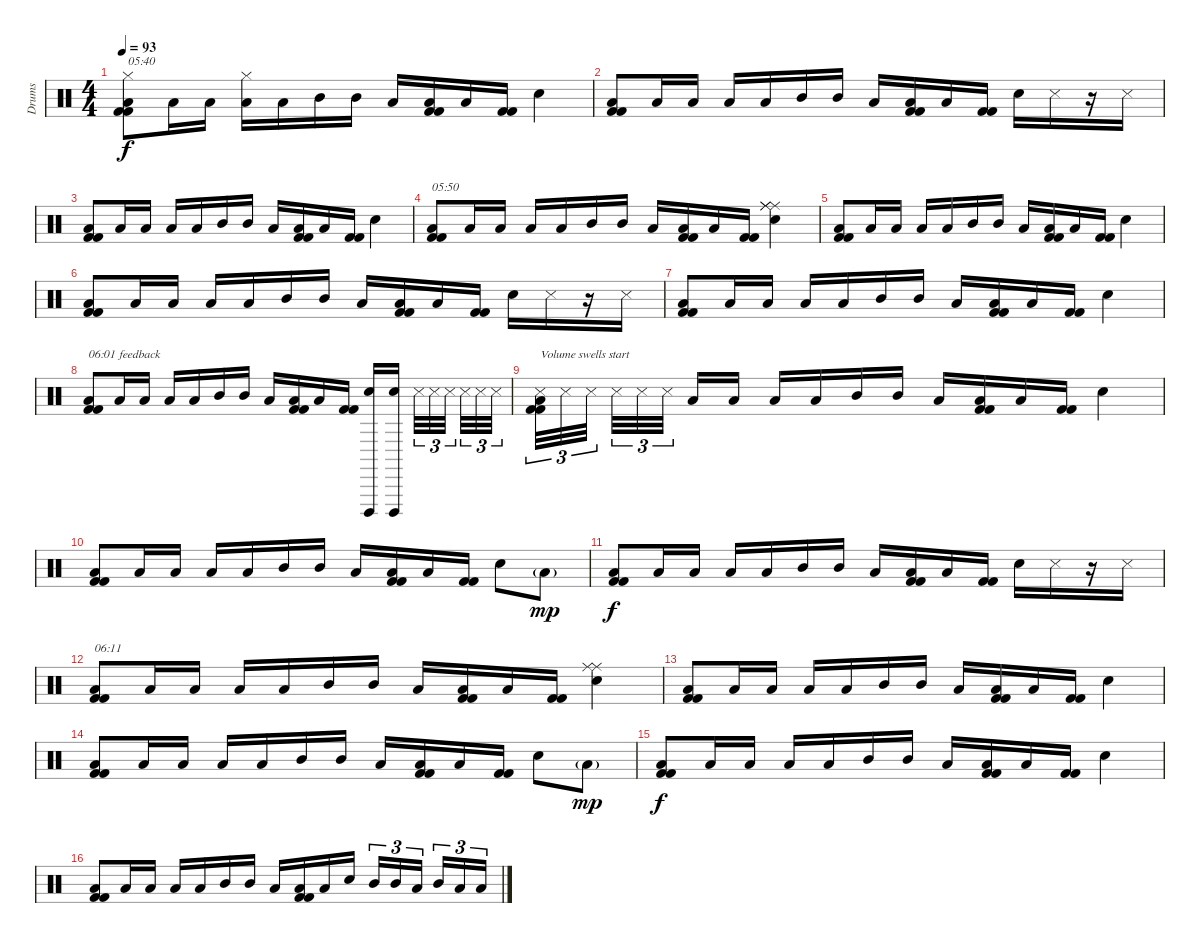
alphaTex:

\track ("Drums" "Drums") {instrument percussion}
\staff {score}
\articulation defaults
\ts (4 4)
\tempo 93
\clef neutral
\ks c
("Hi-Hat (closed)" "Low Floor Tom (hit)" "Kick (hit) 2" "Kick (hit) 2").8{txt "05:40" dy f} "Low Floor Tom (hit)".16 "Low Tom (hit)".16 ("Hi-Hat (closed)" "Low Tom (hit)").16 "Low Floor Tom (hit)".16 "Mid Tom (hit)".16 "Mid Tom (hit)".16 "Low Floor Tom (hit)".16 ("Low Tom (hit)" "Kick (hit) 2" "Kick (hit) 2").16 "Low Floor Tom (hit)".16 ("Kick (hit) 2" "Kick (hit) 2").16 "Snare (hit) 2".4 |
("Low Floor Tom (hit)" "Kick (hit) 2" "Kick (hit) 2").8 "Low Floor Tom (hit)".16 "Low Tom (hit)".16 "Low Tom (hit)".16 "Low Floor Tom (hit)".16 "Mid Tom (hit)".16 "Mid Tom (hit)".16 "Low Floor Tom (hit)".16 ("Low Tom (hit)" "Kick (hit) 2" "Kick (hit) 2").16 "Low Floor Tom (hit)".16 ("Kick (hit) 2" "Kick (hit) 2").16 "Snare (hit) 2".16 "Snare (side stick) 3".16 r.16 "Snare (side stick) 3".16 |
("Low Floor Tom (hit)" "Kick (hit) 2" "Kick (hit) 2").8 "Low Floor Tom (hit)".16 "Low Tom (hit)".16 "Low Tom (hit)".16 "Low Floor Tom (hit)".16 "Mid Tom (hit)".16 "Mid Tom (hit)".16 "Low Floor Tom (hit)".16 ("Low Tom (hit)" "Kick (hit) 2" "Kick (hit) 2").16 "Low Floor Tom (hit)".16 ("Kick (hit) 2" "Kick (hit) 2").16 "Snare (hit) 2".4 |
("Low Floor Tom (hit)" "Kick (hit) 2" "Kick (hit) 2").8{txt "05:50"} "Low Floor Tom (hit)".16 "Low Tom (hit)".16 "Low Tom (hit)".16 "Low Floor Tom (hit)".16 "Mid Tom (hit)".16 "Mid Tom (hit)".16 "Low Floor Tom (hit)".16 ("Low Tom (hit)" "Kick (hit) 2" "Kick (hit) 2").16 "Low Floor Tom (hit)".16 ("Kick (hit) 2" "Kick (hit) 2").16 ("Ride (middle)" "Ride (middle)" "Ride (middle)" "Snare (hit) 2").4 |
("Low Floor Tom (hit)" "Kick (hit) 2" "Kick (hit) 2").8 "Low Floor Tom (hit)".16 "Low Tom (hit)".16 "Low Tom (hit)".16 "Low Floor Tom (hit)".16 "Mid Tom (hit)".16 "Mid Tom (hit)".16 "Low Floor Tom (hit)".16 ("Low Tom (hit)" "Kick (hit) 2" "Kick (hit) 2").16 "Low Floor Tom (hit)".16 ("Kick (hit) 2" "Kick (hit) 2").16 "Snare (hit) 2".4 |
("Low Floor Tom (hit)" "Kick (hit) 2" "Kick (hit) 2").8 "Low Floor Tom (hit)".16 "Low Tom (hit)".16 "Low Tom (hit)".16 "Low Floor Tom (hit)".16 "Mid Tom (hit)".16 "Mid Tom (hit)".16 "Low Floor Tom (hit)".16 ("Low Tom (hit)" "Kick (hit) 2" "Kick (hit) 2").16 "Low Floor Tom (hit)".16 ("Kick (hit) 2" "Kick (hit) 2").16 "Snare (hit) 2".16 "Snare (side stick) 3".16 r.16 "Snare (side stick) 3".16 |
("Low Floor Tom (hit)" "Kick (hit) 2" "Kick (hit) 2").8 "Low Floor Tom (hit)".16 "Low Tom (hit)".16 "Low Tom (hit)".16 "Low Floor Tom (hit)".16 "Mid Tom (hit)".16 "Mid Tom (hit)".16 "Low Floor Tom (hit)".16 ("Low Tom (hit)" "Kick (hit) 2" "Kick (hit) 2").16 "Low Floor Tom (hit)".16 ("Kick (hit) 2" "Kick (hit) 2").16 "Snare (hit) 2".4 |
("Low Floor Tom (hit)" "Kick (hit) 2" "Kick (hit) 2").8{txt "06:01 feedback"} "Low Floor Tom (hit)".16 "Low Tom (hit)".16 "Low Tom (hit)".16 "Low Floor Tom (hit)".16 "Mid Tom (hit)".16 "Mid Tom (hit)".16 "Low Floor Tom (hit)".16 ("Low Tom (hit)" "Kick (hit) 2" "Kick (hit) 2").16 "Low Floor Tom (hit)".16 ("Kick (hit) 2" "Kick (hit) 2").16 ("Snare (hit) 2" "Cuica (open)").16 ("Snare (hit) 2" "Cuica (open)").16 "Snare (side stick) 3".32{tu (3 2)} "Snare (side stick) 3".32{tu (3 2)} "Snare (side stick) 3".32{tu (3 2)} "Snare (side stick) 3".32{tu (3 2)} "Snare (side stick) 3".32{tu (3 2)} "Snare (side stick) 3".32{tu (3 2)} |
("Snare (side stick) 3" "Low Floor Tom (hit)" "Kick (hit) 2" "Kick (hit) 2").32{tu (3 2) txt "Volume swells start"} "Snare (side stick) 3".32{tu (3 2)} "Snare (side stick) 3".32{tu (3 2)} "Snare (side stick) 3".32{tu (3 2)} "Snare (side stick) 3".32{tu (3 2)} "Snare (side stick) 3".32{tu (3 2)} "Low Floor Tom (hit)".16 "Low Tom (hit)".16 "Low Tom (hit)".16 "Low Floor Tom (hit)".16 "Mid Tom (hit)".16 "Mid Tom (hit)".16 "Low Floor Tom (hit)".16 ("Low Tom (hit)" "Kick (hit) 2" "Kick (hit) 2").16 "Low Floor Tom (hit)".16 ("Kick (hit) 2" "Kick (hit) 2").16 "Snare (hit) 2".4 |
("Low Floor Tom (hit)" "Kick (hit) 2" "Kick (hit) 2").8 "Low Floor Tom (hit)".16 "Low Tom (hit)".16 "Low Tom (hit)".16 "Low Floor Tom (hit)".16 "Mid Tom (hit)".16 "Mid Tom (hit)".16 "Low Floor Tom (hit)".16 ("Low Tom (hit)" "Kick (hit) 2" "Kick (hit) 2").16 "Low Floor Tom (hit)".16 ("Kick (hit) 2" "Kick (hit) 2").16 "Snare (hit) 2".8 "Low Tom (hit)"{g}.8{dy mp} |
("Low Floor Tom (hit)" "Kick (hit) 2" "Kick (hit) 2").8{dy f} "Low Floor Tom (hit)".16 "Low Tom (hit)".16 "Low Tom (hit)".16 "Low Floor Tom (hit)".16 "Mid Tom (hit)".16 "Mid Tom (hit)".16 "Low Floor Tom (hit)".16 ("Low Tom (hit)" "Kick (hit) 2" "Kick (hit) 2").16 "Low Floor Tom (hit)".16 ("Kick (hit) 2" "Kick (hit) 2").16 "Snare (hit) 2".16 "Snare (side stick) 3".16 r.16 "Snare (side stick) 3".16 |
("Low Floor Tom (hit)" "Kick (hit) 2" "Kick (hit) 2").8{txt "06:11"} "Low Floor Tom (hit)".16 "Low Tom (hit)".16 "Low Tom (hit)".16 "Low Floor Tom (hit)".16 "Mid Tom (hit)".16 "Mid Tom (hit)".16 "Low Floor Tom (hit)".16 ("Low Tom (hit)" "Kick (hit) 2" "Kick (hit) 2").16 "Low Floor Tom (hit)".16 ("Kick (hit) 2" "Kick (hit) 2").16 ("Ride (middle)" "Ride (middle)" "Snare (hit) 2").4 |
("Low Floor Tom (hit)" "Kick (hit) 2" "Kick (hit) 2").8 "Low Floor Tom (hit)".16 "Low Tom (hit)".16 "Low Tom (hit)".16 "Low Floor Tom (hit)".16 "Mid Tom (hit)".16 "Mid Tom (hit)".16 "Low Floor Tom (hit)".16 ("Low Tom (hit)" "Kick (hit) 2" "Kick (hit) 2").16 "Low Floor Tom (hit)".16 ("Kick (hit) 2" "Kick (hit) 2").16 "Snare (hit) 2".4 |
("Low Floor Tom (hit)" "Kick (hit) 2" "Kick (hit) 2").8 "Low Floor Tom (hit)".16 "Low Tom (hit)".16 "Low Tom (hit)".16 "Low Floor Tom (hit)".16 "Mid Tom (hit)".16 "Mid Tom (hit)".16 "Low Floor Tom (hit)".16 ("Low Tom (hit)" "Kick (hit) 2" "Kick (hit) 2").16 "Low Floor Tom (hit)".16 ("Kick (hit) 2" "Kick (hit) 2").16 "Snare (hit) 2".8 "Low Tom (hit)"{g}.8{dy mp} |
("Low Floor Tom (hit)" "Kick (hit) 2" "Kick (hit) 2").8{dy f} "Low Floor Tom (hit)".16 "Low Tom (hit)".16 "Low Tom (hit)".16 "Low Floor Tom (hit)".16 "Mid Tom (hit)".16 "Mid Tom (hit)".16 "Low Floor Tom (hit)".16 ("Low Tom (hit)" "Kick (hit) 2" "Kick (hit) 2").16 "Low Floor Tom (hit)".16 ("Kick (hit) 2" "Kick (hit) 2").16 "Snare (hit) 2".4 |
("Low Floor Tom (hit)" "Kick (hit) 2" "Kick (hit) 2").8 "Low Floor Tom (hit)".16 "Low Tom (hit)".16 "Low Tom (hit)".16 "Low Floor Tom (hit)".16 "Mid Tom (hit)".16 "Mid Tom (hit)".16 "Low Floor Tom (hit)".16 ("Low Tom (hit)" "Kick (hit) 2" "Kick (hit) 2").16 "Low Floor Tom (hit)".16 "Snare (hit) 2".16 "Mid Tom (hit)".16{tu (3 2)} "Mid Tom (hit)".16{tu (3 2)} "Low Tom (hit)".16{tu (3 2)} "Mid Tom (hit)".16{tu (3 2)} "Low Tom (hit)".16{tu (3 2)} "Low Floor Tom (hit)".16{tu (3 2)}
